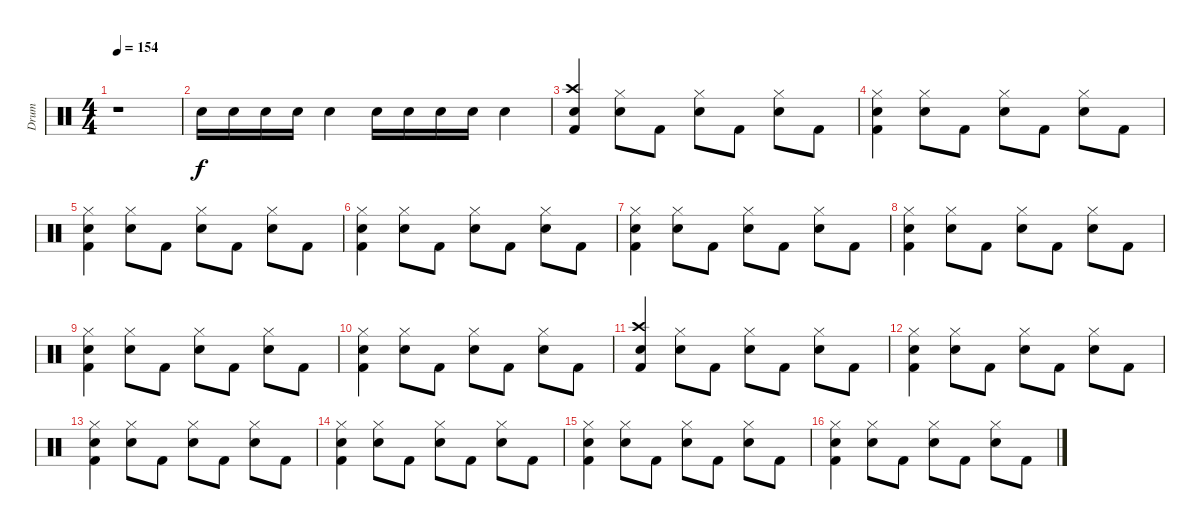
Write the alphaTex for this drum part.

\track ("Drum" "Drum") {instrument percussion}
\staff {score}
\articulation defaults
\ts (4 4)
\tempo 154
\clef neutral
\ks c
r.1{dy f} |
"Electric Snare (hit)".16 "Electric Snare (hit)".16 "Electric Snare (hit)".16 "Electric Snare (hit)".16 "Electric Snare (hit)".4 "Electric Snare (hit)".16 "Electric Snare (hit)".16 "Electric Snare (hit)".16 "Electric Snare (hit)".16 "Electric Snare (hit)".4 |
("Crash high (hit)" "Electric Snare (hit)" "Kick (hit) 2").4 ("Hi-Hat (closed)" "Electric Snare (hit)").8 "Kick (hit) 2".8 ("Hi-Hat (closed)" "Electric Snare (hit)").8 "Kick (hit) 2".8 ("Hi-Hat (closed)" "Electric Snare (hit)").8 "Kick (hit) 2".8 |
("Hi-Hat (closed)" "Electric Snare (hit)" "Kick (hit) 2").4 ("Hi-Hat (closed)" "Electric Snare (hit)").8 "Kick (hit) 2".8 ("Hi-Hat (closed)" "Electric Snare (hit)").8 "Kick (hit) 2".8 ("Hi-Hat (closed)" "Electric Snare (hit)").8 "Kick (hit) 2".8 |
("Hi-Hat (closed)" "Electric Snare (hit)" "Kick (hit) 2").4 ("Hi-Hat (closed)" "Electric Snare (hit)").8 "Kick (hit) 2".8 ("Hi-Hat (closed)" "Electric Snare (hit)").8 "Kick (hit) 2".8 ("Hi-Hat (closed)" "Electric Snare (hit)").8 "Kick (hit) 2".8 |
("Hi-Hat (closed)" "Electric Snare (hit)" "Kick (hit) 2").4 ("Hi-Hat (closed)" "Electric Snare (hit)").8 "Kick (hit) 2".8 ("Hi-Hat (closed)" "Electric Snare (hit)").8 "Kick (hit) 2".8 ("Hi-Hat (closed)" "Electric Snare (hit)").8 "Kick (hit) 2".8 |
("Hi-Hat (closed)" "Electric Snare (hit)" "Kick (hit) 2").4 ("Hi-Hat (closed)" "Electric Snare (hit)").8 "Kick (hit) 2".8 ("Hi-Hat (closed)" "Electric Snare (hit)").8 "Kick (hit) 2".8 ("Hi-Hat (closed)" "Electric Snare (hit)").8 "Kick (hit) 2".8 |
("Hi-Hat (closed)" "Electric Snare (hit)" "Kick (hit) 2").4 ("Hi-Hat (closed)" "Electric Snare (hit)").8 "Kick (hit) 2".8 ("Hi-Hat (closed)" "Electric Snare (hit)").8 "Kick (hit) 2".8 ("Hi-Hat (closed)" "Electric Snare (hit)").8 "Kick (hit) 2".8 |
("Hi-Hat (closed)" "Electric Snare (hit)" "Kick (hit) 2").4 ("Hi-Hat (closed)" "Electric Snare (hit)").8 "Kick (hit) 2".8 ("Hi-Hat (closed)" "Electric Snare (hit)").8 "Kick (hit) 2".8 ("Hi-Hat (closed)" "Electric Snare (hit)").8 "Kick (hit) 2".8 |
("Hi-Hat (closed)" "Electric Snare (hit)" "Kick (hit) 2").4 ("Hi-Hat (closed)" "Electric Snare (hit)").8 "Kick (hit) 2".8 ("Hi-Hat (closed)" "Electric Snare (hit)").8 "Kick (hit) 2".8 ("Hi-Hat (closed)" "Electric Snare (hit)").8 "Kick (hit) 2".8 |
("Crash high (hit)" "Electric Snare (hit)" "Kick (hit) 2").4 ("Hi-Hat (closed)" "Electric Snare (hit)").8 "Kick (hit) 2".8 ("Hi-Hat (closed)" "Electric Snare (hit)").8 "Kick (hit) 2".8 ("Hi-Hat (closed)" "Electric Snare (hit)").8 "Kick (hit) 2".8 |
("Hi-Hat (closed)" "Electric Snare (hit)" "Kick (hit) 2").4 ("Hi-Hat (closed)" "Electric Snare (hit)").8 "Kick (hit) 2".8 ("Hi-Hat (closed)" "Electric Snare (hit)").8 "Kick (hit) 2".8 ("Hi-Hat (closed)" "Electric Snare (hit)").8 "Kick (hit) 2".8 |
("Hi-Hat (closed)" "Electric Snare (hit)" "Kick (hit) 2").4 ("Hi-Hat (closed)" "Electric Snare (hit)").8 "Kick (hit) 2".8 ("Hi-Hat (closed)" "Electric Snare (hit)").8 "Kick (hit) 2".8 ("Hi-Hat (closed)" "Electric Snare (hit)").8 "Kick (hit) 2".8 |
("Hi-Hat (closed)" "Electric Snare (hit)" "Kick (hit) 2").4 ("Hi-Hat (closed)" "Electric Snare (hit)").8 "Kick (hit) 2".8 ("Hi-Hat (closed)" "Electric Snare (hit)").8 "Kick (hit) 2".8 ("Hi-Hat (closed)" "Electric Snare (hit)").8 "Kick (hit) 2".8 |
("Hi-Hat (closed)" "Electric Snare (hit)" "Kick (hit) 2").4 ("Hi-Hat (closed)" "Electric Snare (hit)").8 "Kick (hit) 2".8 ("Hi-Hat (closed)" "Electric Snare (hit)").8 "Kick (hit) 2".8 ("Hi-Hat (closed)" "Electric Snare (hit)").8 "Kick (hit) 2".8 |
("Hi-Hat (closed)" "Electric Snare (hit)" "Kick (hit) 2").4 ("Hi-Hat (closed)" "Electric Snare (hit)").8 "Kick (hit) 2".8 ("Hi-Hat (closed)" "Electric Snare (hit)").8 "Kick (hit) 2".8 ("Hi-Hat (closed)" "Electric Snare (hit)").8 "Kick (hit) 2".8
